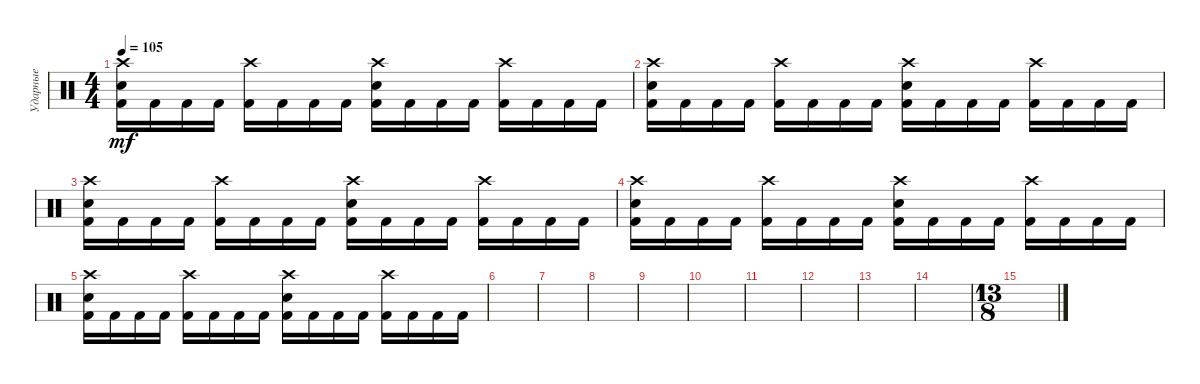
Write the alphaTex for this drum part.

\track ("Ударные" "Ударные") {instrument percussion}
\staff {score}
\articulation defaults
\ts (4 4)
\tempo 105
\clef neutral
\ks c
("Crash high (hit)" "Electric Snare (hit)" "Kick (hit) 2").16{dy mf} "Kick (hit) 2".16 "Kick (hit) 2".16 "Kick (hit) 2".16 ("Crash high (hit)" "Kick (hit) 2").16 "Kick (hit) 2".16 "Kick (hit) 2".16 "Kick (hit) 2".16 ("Crash high (hit)" "Electric Snare (hit)" "Kick (hit) 2").16 "Kick (hit) 2".16 "Kick (hit) 2".16 "Kick (hit) 2".16 ("Crash high (hit)" "Kick (hit) 2").16 "Kick (hit) 2".16 "Kick (hit) 2".16 "Kick (hit) 2".16 |
("Crash high (hit)" "Electric Snare (hit)" "Kick (hit) 2").16 "Kick (hit) 2".16 "Kick (hit) 2".16 "Kick (hit) 2".16 ("Crash high (hit)" "Kick (hit) 2").16 "Kick (hit) 2".16 "Kick (hit) 2".16 "Kick (hit) 2".16 ("Crash high (hit)" "Electric Snare (hit)" "Kick (hit) 2").16 "Kick (hit) 2".16 "Kick (hit) 2".16 "Kick (hit) 2".16 ("Crash high (hit)" "Kick (hit) 2").16 "Kick (hit) 2".16 "Kick (hit) 2".16 "Kick (hit) 2".16 |
("Crash high (hit)" "Electric Snare (hit)" "Kick (hit) 2").16 "Kick (hit) 2".16 "Kick (hit) 2".16 "Kick (hit) 2".16 ("Crash high (hit)" "Kick (hit) 2").16 "Kick (hit) 2".16 "Kick (hit) 2".16 "Kick (hit) 2".16 ("Crash high (hit)" "Electric Snare (hit)" "Kick (hit) 2").16 "Kick (hit) 2".16 "Kick (hit) 2".16 "Kick (hit) 2".16 ("Crash high (hit)" "Kick (hit) 2").16 "Kick (hit) 2".16 "Kick (hit) 2".16 "Kick (hit) 2".16 |
("Crash high (hit)" "Electric Snare (hit)" "Kick (hit) 2").16 "Kick (hit) 2".16 "Kick (hit) 2".16 "Kick (hit) 2".16 ("Crash high (hit)" "Kick (hit) 2").16 "Kick (hit) 2".16 "Kick (hit) 2".16 "Kick (hit) 2".16 ("Crash high (hit)" "Electric Snare (hit)" "Kick (hit) 2").16 "Kick (hit) 2".16 "Kick (hit) 2".16 "Kick (hit) 2".16 ("Crash high (hit)" "Kick (hit) 2").16 "Kick (hit) 2".16 "Kick (hit) 2".16 "Kick (hit) 2".16 |
("Crash high (hit)" "Electric Snare (hit)" "Kick (hit) 2").16 "Kick (hit) 2".16 "Kick (hit) 2".16 "Kick (hit) 2".16 ("Crash high (hit)" "Kick (hit) 2").16 "Kick (hit) 2".16 "Kick (hit) 2".16 "Kick (hit) 2".16 ("Crash high (hit)" "Electric Snare (hit)" "Kick (hit) 2").16 "Kick (hit) 2".16 "Kick (hit) 2".16 "Kick (hit) 2".16 ("Crash high (hit)" "Kick (hit) 2").16 "Kick (hit) 2".16 "Kick (hit) 2".16 "Kick (hit) 2".16 |
|
|
|
|
|
|
|
|
|
\ts (13 8)
